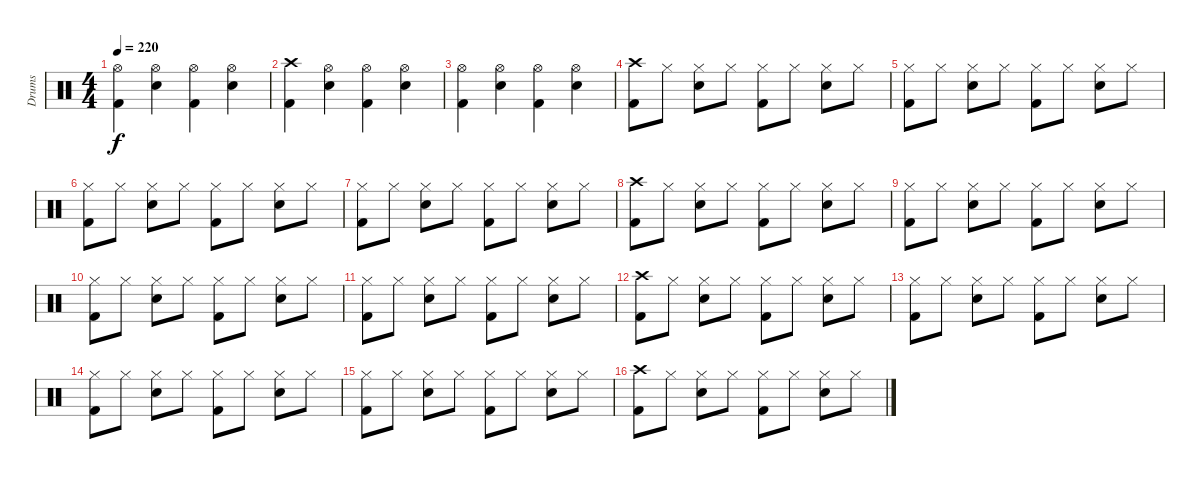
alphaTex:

\track ("Drums" "Drums") {instrument percussion}
\staff {score}
\articulation defaults
\ts (4 4)
\tempo 220
\clef neutral
\ks c
("Hi-Hat (open)" "Kick (hit) 2").4{dy f} ("Hi-Hat (open)" "Snare (hit) 2").4 ("Hi-Hat (open)" "Kick (hit) 2").4 ("Hi-Hat (open)" "Snare (hit) 2").4 |
("Crash high (hit)" "Kick (hit) 2").4 ("Hi-Hat (open)" "Snare (hit) 2").4 ("Hi-Hat (open)" "Kick (hit) 2").4 ("Hi-Hat (open)" "Snare (hit) 2").4 |
("Hi-Hat (open)" "Kick (hit) 2").4 ("Hi-Hat (open)" "Snare (hit) 2").4 ("Hi-Hat (open)" "Kick (hit) 2").4 ("Hi-Hat (open)" "Snare (hit) 2").4 |
("Crash high (hit)" "Kick (hit) 2").8 "Hi-Hat (closed)".8 ("Hi-Hat (closed)" "Snare (hit) 2").8 "Hi-Hat (closed)".8 ("Hi-Hat (closed)" "Kick (hit) 2").8 "Hi-Hat (closed)".8 ("Hi-Hat (closed)" "Snare (hit) 2").8 "Hi-Hat (closed)".8 |
("Hi-Hat (closed)" "Kick (hit) 2").8 "Hi-Hat (closed)".8 ("Hi-Hat (closed)" "Snare (hit) 2").8 "Hi-Hat (closed)".8 ("Hi-Hat (closed)" "Kick (hit) 2").8 "Hi-Hat (closed)".8 ("Hi-Hat (closed)" "Snare (hit) 2").8 "Hi-Hat (closed)".8 |
("Hi-Hat (closed)" "Kick (hit) 2").8 "Hi-Hat (closed)".8 ("Hi-Hat (closed)" "Snare (hit) 2").8 "Hi-Hat (closed)".8 ("Hi-Hat (closed)" "Kick (hit) 2").8 "Hi-Hat (closed)".8 ("Hi-Hat (closed)" "Snare (hit) 2").8 "Hi-Hat (closed)".8 |
("Hi-Hat (closed)" "Kick (hit) 2").8 "Hi-Hat (closed)".8 ("Hi-Hat (closed)" "Snare (hit) 2").8 "Hi-Hat (closed)".8 ("Hi-Hat (closed)" "Kick (hit) 2").8 "Hi-Hat (closed)".8 ("Hi-Hat (closed)" "Snare (hit) 2").8 "Hi-Hat (closed)".8 |
("Crash high (hit)" "Kick (hit) 2").8 "Hi-Hat (closed)".8 ("Hi-Hat (closed)" "Snare (hit) 2").8 "Hi-Hat (closed)".8 ("Hi-Hat (closed)" "Kick (hit) 2").8 "Hi-Hat (closed)".8 ("Hi-Hat (closed)" "Snare (hit) 2").8 "Hi-Hat (closed)".8 |
("Hi-Hat (closed)" "Kick (hit) 2").8 "Hi-Hat (closed)".8 ("Hi-Hat (closed)" "Snare (hit) 2").8 "Hi-Hat (closed)".8 ("Hi-Hat (closed)" "Kick (hit) 2").8 "Hi-Hat (closed)".8 ("Hi-Hat (closed)" "Snare (hit) 2").8 "Hi-Hat (closed)".8 |
("Hi-Hat (closed)" "Kick (hit) 2").8 "Hi-Hat (closed)".8 ("Hi-Hat (closed)" "Snare (hit) 2").8 "Hi-Hat (closed)".8 ("Hi-Hat (closed)" "Kick (hit) 2").8 "Hi-Hat (closed)".8 ("Hi-Hat (closed)" "Snare (hit) 2").8 "Hi-Hat (closed)".8 |
("Hi-Hat (closed)" "Kick (hit) 2").8 "Hi-Hat (closed)".8 ("Hi-Hat (closed)" "Snare (hit) 2").8 "Hi-Hat (closed)".8 ("Hi-Hat (closed)" "Kick (hit) 2").8 "Hi-Hat (closed)".8 ("Hi-Hat (closed)" "Snare (hit) 2").8 "Hi-Hat (closed)".8 |
("Crash high (hit)" "Kick (hit) 2").8 "Hi-Hat (closed)".8 ("Hi-Hat (closed)" "Snare (hit) 2").8 "Hi-Hat (closed)".8 ("Hi-Hat (closed)" "Kick (hit) 2").8 "Hi-Hat (closed)".8 ("Hi-Hat (closed)" "Snare (hit) 2").8 "Hi-Hat (closed)".8 |
("Hi-Hat (closed)" "Kick (hit) 2").8 "Hi-Hat (closed)".8 ("Hi-Hat (closed)" "Snare (hit) 2").8 "Hi-Hat (closed)".8 ("Hi-Hat (closed)" "Kick (hit) 2").8 "Hi-Hat (closed)".8 ("Hi-Hat (closed)" "Snare (hit) 2").8 "Hi-Hat (closed)".8 |
("Hi-Hat (closed)" "Kick (hit) 2").8 "Hi-Hat (closed)".8 ("Hi-Hat (closed)" "Snare (hit) 2").8 "Hi-Hat (closed)".8 ("Hi-Hat (closed)" "Kick (hit) 2").8 "Hi-Hat (closed)".8 ("Hi-Hat (closed)" "Snare (hit) 2").8 "Hi-Hat (closed)".8 |
("Hi-Hat (closed)" "Kick (hit) 2").8 "Hi-Hat (closed)".8 ("Hi-Hat (closed)" "Snare (hit) 2").8 "Hi-Hat (closed)".8 ("Hi-Hat (closed)" "Kick (hit) 2").8 "Hi-Hat (closed)".8 ("Hi-Hat (closed)" "Snare (hit) 2").8 "Hi-Hat (closed)".8 |
("Crash high (hit)" "Kick (hit) 2").8 "Hi-Hat (closed)".8 ("Hi-Hat (closed)" "Snare (hit) 2").8 "Hi-Hat (closed)".8 ("Hi-Hat (closed)" "Kick (hit) 2").8 "Hi-Hat (closed)".8 ("Hi-Hat (closed)" "Snare (hit) 2").8 "Hi-Hat (closed)".8
